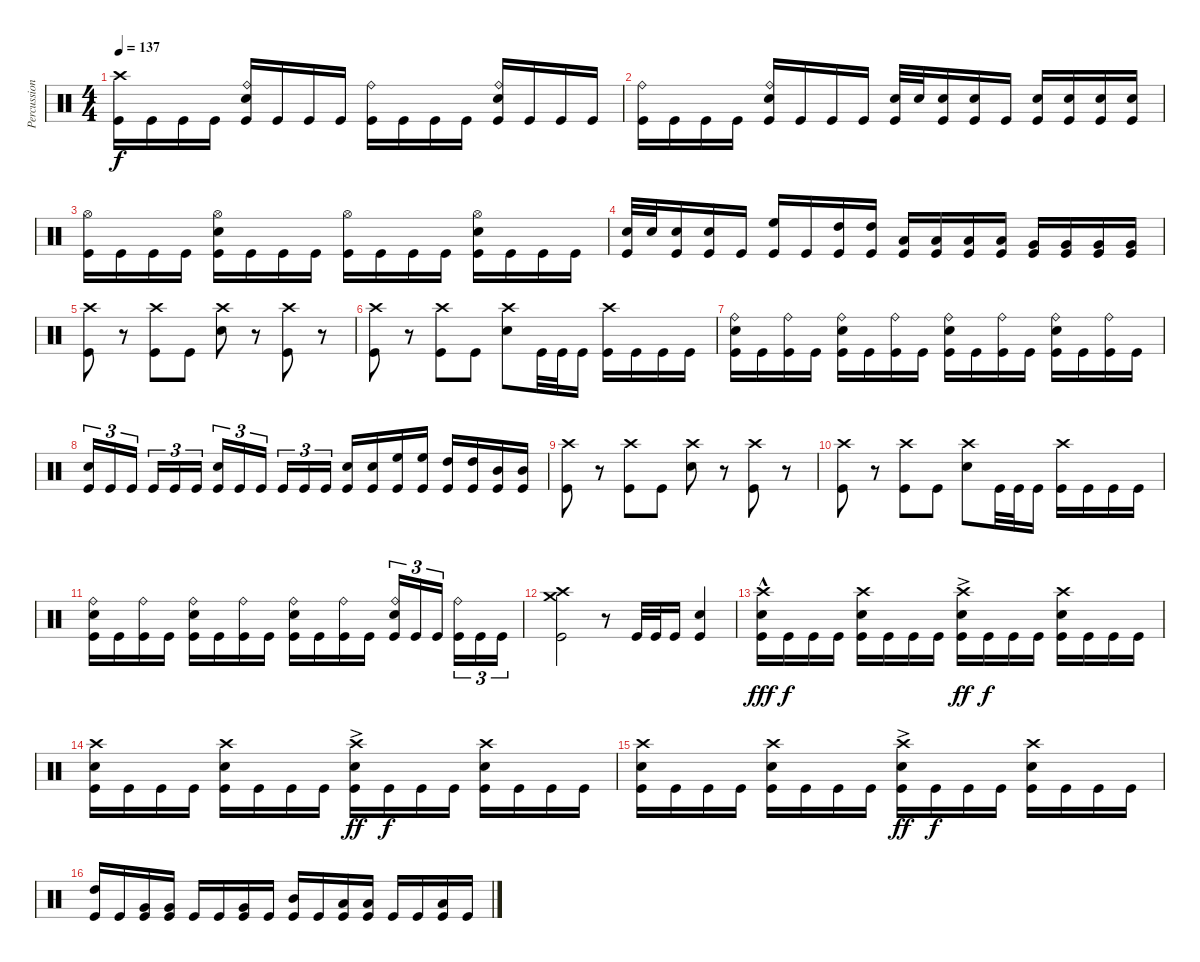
\track ("Percussion" "Percussion") {instrument percussion}
\staff {score}
\articulation defaults
\ts (4 4)
\tempo 137
\clef neutral
\ks c
("Crash high (hit)" "Kick (hit)").16{dy f} "Kick (hit)".16 "Kick (hit)".16 "Kick (hit)".16 ("Ride (bell)" "Snare (hit) 2" "Kick (hit)").16 "Kick (hit)".16 "Kick (hit)".16 "Kick (hit)".16 ("Ride (bell)" "Kick (hit)").16 "Kick (hit)".16 "Kick (hit)".16 "Kick (hit)".16 ("Ride (bell)" "Snare (hit) 2" "Kick (hit)").16 "Kick (hit)".16 "Kick (hit)".16 "Kick (hit)".16 |
("Ride (bell)" "Kick (hit)").16 "Kick (hit)".16 "Kick (hit)".16 "Kick (hit)".16 ("Ride (bell)" "Snare (hit) 2" "Kick (hit)").16 "Kick (hit)".16 "Kick (hit)".16 "Kick (hit)".16 ("Snare (hit) 2" "Kick (hit)").32 "Snare (hit) 2".32 ("Snare (hit) 2" "Kick (hit)").16 ("Snare (hit) 2" "Kick (hit)").16 "Kick (hit)".16 ("Snare (hit) 2" "Kick (hit)").16 ("Snare (hit) 2" "Kick (hit)").16 ("Snare (hit) 2" "Kick (hit)").16 ("Snare (hit) 2" "Kick (hit)").16 |
("Hi-Hat (open)" "Kick (hit)").16 "Kick (hit)".16 "Kick (hit)".16 "Kick (hit)".16 ("Hi-Hat (open)" "Snare (hit) 2" "Kick (hit)").16 "Kick (hit)".16 "Kick (hit)".16 "Kick (hit)".16 ("Hi-Hat (open)" "Kick (hit)").16 "Kick (hit)".16 "Kick (hit)".16 "Kick (hit)".16 ("Hi-Hat (open)" "Snare (hit) 2" "Kick (hit)").16 "Kick (hit)".16 "Kick (hit)".16 "Kick (hit)".16 |
("Snare (hit) 2" "Kick (hit)").32 "Snare (hit) 2".32 ("Snare (hit) 2" "Kick (hit)").16 ("Snare (hit) 2" "Kick (hit)").16 "Kick (hit)".16 ("High Floor Tom (hit)" "Kick (hit)").16 "Kick (hit)".16 ("High Tom (hit)" "Kick (hit)").16 ("High Tom (hit)" "Kick (hit)").16 ("Low Tom (hit)" "Kick (hit)").16 ("Low Tom (hit)" "Kick (hit)").16 ("Low Tom (hit)" "Kick (hit)").16 ("Low Tom (hit)" "Kick (hit)").16 ("Very Low Tom (hit)" "Kick (hit)").16 ("Very Low Tom (hit)" "Kick (hit)").16 ("Very Low Tom (hit)" "Kick (hit)").16 ("Very Low Tom (hit)" "Kick (hit)").16 |
("Crash high (hit)" "Kick (hit)").8 r.8 ("Crash high (hit)" "Kick (hit)").8 "Kick (hit)".8 ("Crash high (hit)" "Snare (hit) 2").8 r.8 ("Crash high (hit)" "Kick (hit)").8 r.8 |
("Crash high (hit)" "Kick (hit)").8 r.8 ("Crash high (hit)" "Kick (hit)").8 "Kick (hit)".8 ("Crash high (hit)" "Snare (hit) 2").8 "Kick (hit)".32 "Kick (hit)".32 "Kick (hit)".16 ("Crash high (hit)" "Kick (hit)").16 "Kick (hit)".16 "Kick (hit)".16 "Kick (hit)".16 |
("Ride (bell)" "Snare (hit) 2" "Kick (hit)").16 "Kick (hit)".16 ("Ride (bell)" "Kick (hit)").16 "Kick (hit)".16 ("Ride (bell)" "Snare (hit) 2" "Kick (hit)").16 "Kick (hit)".16 ("Ride (bell)" "Kick (hit)").16 "Kick (hit)".16 ("Ride (bell)" "Snare (hit) 2" "Kick (hit)").16 "Kick (hit)".16 ("Ride (bell)" "Kick (hit)").16 "Kick (hit)".16 ("Ride (bell)" "Snare (hit) 2" "Kick (hit)").16 "Kick (hit)".16 ("Ride (bell)" "Kick (hit)").16 "Kick (hit)".16 |
("Snare (hit) 2" "Kick (hit)").16{tu (3 2)} "Kick (hit)".16{tu (3 2)} "Kick (hit)".16{tu (3 2) beam splitsecondary} "Kick (hit)".16{tu (3 2)} "Kick (hit)".16{tu (3 2)} "Kick (hit)".16{tu (3 2)} ("Snare (hit) 2" "Kick (hit)").16{tu (3 2)} "Kick (hit)".16{tu (3 2)} "Kick (hit)".16{tu (3 2) beam splitsecondary} "Kick (hit)".16{tu (3 2)} "Kick (hit)".16{tu (3 2)} "Kick (hit)".16{tu (3 2)} ("Snare (hit) 2" "Kick (hit)").16 ("Snare (hit) 2" "Kick (hit)").16 ("High Floor Tom (hit)" "Kick (hit)").16 ("High Floor Tom (hit)" "Kick (hit)").16 ("High Tom (hit)" "Kick (hit)").16 ("High Tom (hit)" "Kick (hit)").16 ("Mid Tom (hit)" "Kick (hit)").16 ("Mid Tom (hit)" "Kick (hit)").16 |
("Crash high (hit)" "Kick (hit)").8 r.8 ("Crash high (hit)" "Kick (hit)").8 "Kick (hit)".8 ("Crash high (hit)" "Snare (hit) 2").8 r.8 ("Crash high (hit)" "Kick (hit)").8 r.8 |
("Crash high (hit)" "Kick (hit)").8 r.8 ("Crash high (hit)" "Kick (hit)").8 "Kick (hit)".8 ("Crash high (hit)" "Snare (hit) 2").8 "Kick (hit)".32 "Kick (hit)".32 "Kick (hit)".16 ("Crash high (hit)" "Kick (hit)").16 "Kick (hit)".16 "Kick (hit)".16 "Kick (hit)".16 |
("Ride (bell)" "Snare (hit) 2" "Kick (hit)").16 "Kick (hit)".16 ("Ride (bell)" "Kick (hit)").16 "Kick (hit)".16 ("Ride (bell)" "Snare (hit) 2" "Kick (hit)").16 "Kick (hit)".16 ("Ride (bell)" "Kick (hit)").16 "Kick (hit)".16 ("Ride (bell)" "Snare (hit) 2" "Kick (hit)").16 "Kick (hit)".16 ("Ride (bell)" "Kick (hit)").16 "Kick (hit)".16 ("Ride (bell)" "Snare (hit) 2" "Kick (hit)").16{tu (3 2)} "Kick (hit)".16{tu (3 2)} "Kick (hit)".16{tu (3 2) beam splitsecondary} ("Ride (bell)" "Kick (hit)").16{tu (3 2)} "Kick (hit)".16{tu (3 2)} "Kick (hit)".16{tu (3 2)} |
("Crash medium (hit)" "Crash high (hit)" "Kick (hit)").2 r.8 "Kick (hit)".32 "Kick (hit)".32 "Kick (hit)".16 ("Snare (hit) 2" "Kick (hit)").4 |
("Crash high (hit)"{hac} "Snare (hit) 2" "Kick (hit)").16{dy fff} "Kick (hit)".16{dy f} "Kick (hit)".16 "Kick (hit)".16 ("Crash high (hit)" "Snare (hit) 2" "Kick (hit)").16 "Kick (hit)".16 "Kick (hit)".16 "Kick (hit)".16 ("Crash high (hit)" "Snare (hit) 2"{ac} "Kick (hit)").16{dy ff} "Kick (hit)".16{dy f} "Kick (hit)".16 "Kick (hit)".16 ("Crash high (hit)" "Snare (hit) 2" "Kick (hit)").16 "Kick (hit)".16 "Kick (hit)".16 "Kick (hit)".16 |
("Crash high (hit)" "Snare (hit) 2" "Kick (hit)").16 "Kick (hit)".16 "Kick (hit)".16 "Kick (hit)".16 ("Crash high (hit)" "Snare (hit) 2" "Kick (hit)").16 "Kick (hit)".16 "Kick (hit)".16 "Kick (hit)".16 ("Crash high (hit)" "Snare (hit) 2"{ac} "Kick (hit)").16{dy ff} "Kick (hit)".16{dy f} "Kick (hit)".16 "Kick (hit)".16 ("Crash high (hit)" "Snare (hit) 2" "Kick (hit)").16 "Kick (hit)".16 "Kick (hit)".16 "Kick (hit)".16 |
("Crash high (hit)" "Snare (hit) 2" "Kick (hit)").16 "Kick (hit)".16 "Kick (hit)".16 "Kick (hit)".16 ("Crash high (hit)" "Snare (hit) 2" "Kick (hit)").16 "Kick (hit)".16 "Kick (hit)".16 "Kick (hit)".16 ("Crash high (hit)" "Snare (hit) 2"{ac} "Kick (hit)").16{dy ff} "Kick (hit)".16{dy f} "Kick (hit)".16 "Kick (hit)".16 ("Crash high (hit)" "Snare (hit) 2" "Kick (hit)").16 "Kick (hit)".16 "Kick (hit)".16 "Kick (hit)".16 |
("High Tom (hit)" "Kick (hit)").16 "Kick (hit)".16 ("Very Low Tom (hit)" "Kick (hit)").16 ("Very Low Tom (hit)" "Kick (hit)").16 "Kick (hit)".16 "Kick (hit)".16 ("Very Low Tom (hit)" "Kick (hit)").16 "Kick (hit)".16 ("Mid Tom (hit)" "Kick (hit)").16 "Kick (hit)".16 ("Low Floor Tom (hit)" "Kick (hit)").16 ("Low Floor Tom (hit)" "Kick (hit)").16 "Kick (hit)".16 "Kick (hit)".16 ("Low Floor Tom (hit)" "Kick (hit)").16 "Kick (hit)".16
